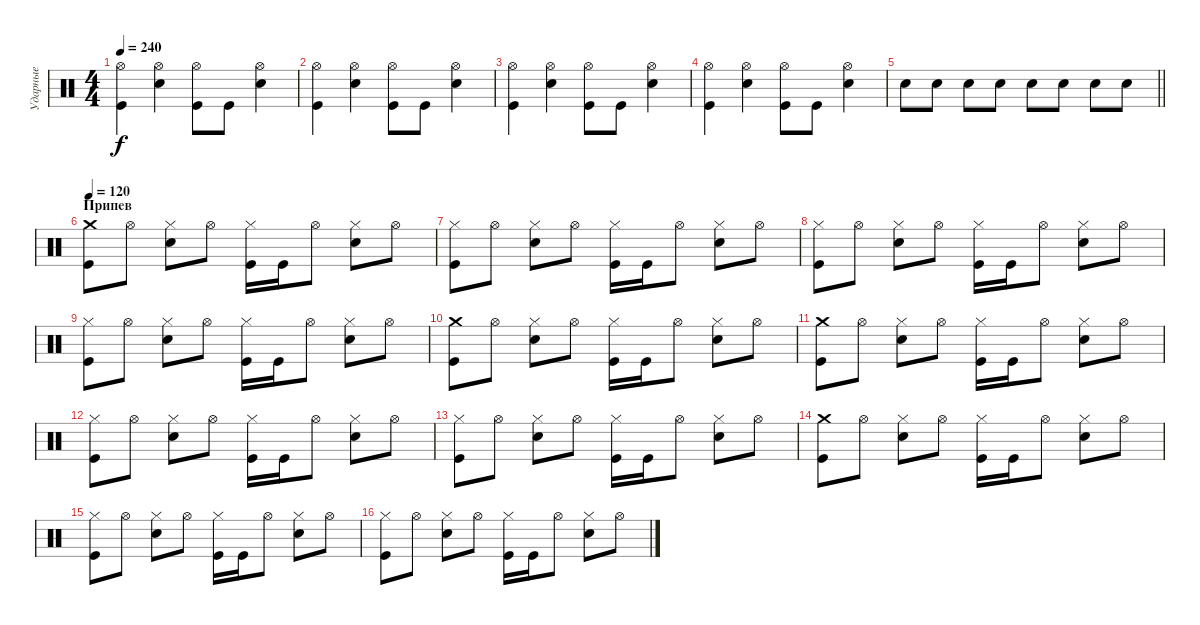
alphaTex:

\track ("Ударные" "Ударные") {instrument percussion}
\staff {score}
\articulation defaults
\ts (4 4)
\tempo 240
\clef neutral
\ks c
("Hi-Hat (open)" "Kick (hit)").4{dy f} ("Hi-Hat (open)" "Electric Snare (hit)").4 ("Hi-Hat (open)" "Kick (hit)").8 "Kick (hit)".8 ("Hi-Hat (open)" "Electric Snare (hit)").4 |
("Hi-Hat (open)" "Kick (hit)").4 ("Hi-Hat (open)" "Electric Snare (hit)").4 ("Hi-Hat (open)" "Kick (hit)").8 "Kick (hit)".8 ("Hi-Hat (open)" "Electric Snare (hit)").4 |
("Hi-Hat (open)" "Kick (hit)").4 ("Hi-Hat (open)" "Electric Snare (hit)").4 ("Hi-Hat (open)" "Kick (hit)").8 "Kick (hit)".8 ("Hi-Hat (open)" "Electric Snare (hit)").4 |
("Hi-Hat (open)" "Kick (hit)").4 ("Hi-Hat (open)" "Electric Snare (hit)").4 ("Hi-Hat (open)" "Kick (hit)").8 "Kick (hit)".8 ("Hi-Hat (open)" "Electric Snare (hit)").4 |
\barLineRight lightlight "Electric Snare (hit)".8 "Electric Snare (hit)".8 "Electric Snare (hit)".8 "Electric Snare (hit)".8 "Electric Snare (hit)".8 "Electric Snare (hit)".8 "Electric Snare (hit)".8 "Electric Snare (hit)".8
|
\section ("" "Припев")
\tempo 120
("Crash medium (hit)" "Kick (hit)").8 "Hi-Hat (open)".8 ("Hi-Hat (closed)" "Electric Snare (hit)").8 "Hi-Hat (open)".8 ("Hi-Hat (closed)" "Kick (hit)").16 "Kick (hit)".16 "Hi-Hat (open)".8 ("Hi-Hat (closed)" "Electric Snare (hit)").8 "Hi-Hat (open)".8 |
("Hi-Hat (closed)" "Kick (hit)").8 "Hi-Hat (open)".8 ("Hi-Hat (closed)" "Electric Snare (hit)").8 "Hi-Hat (open)".8 ("Hi-Hat (closed)" "Kick (hit)").16 "Kick (hit)".16 "Hi-Hat (open)".8 ("Hi-Hat (closed)" "Electric Snare (hit)").8 "Hi-Hat (open)".8 |
("Hi-Hat (closed)" "Kick (hit)").8 "Hi-Hat (open)".8 ("Hi-Hat (closed)" "Electric Snare (hit)").8 "Hi-Hat (open)".8 ("Hi-Hat (closed)" "Kick (hit)").16 "Kick (hit)".16 "Hi-Hat (open)".8 ("Hi-Hat (closed)" "Electric Snare (hit)").8 "Hi-Hat (open)".8 |
("Hi-Hat (closed)" "Kick (hit)").8 "Hi-Hat (open)".8 ("Hi-Hat (closed)" "Electric Snare (hit)").8 "Hi-Hat (open)".8 ("Hi-Hat (closed)" "Kick (hit)").16 "Kick (hit)".16 "Hi-Hat (open)".8 ("Hi-Hat (closed)" "Electric Snare (hit)").8 "Hi-Hat (open)".8 |
("Crash medium (hit)" "Kick (hit)").8 "Hi-Hat (open)".8 ("Hi-Hat (closed)" "Electric Snare (hit)").8 "Hi-Hat (open)".8 ("Hi-Hat (closed)" "Kick (hit)").16 "Kick (hit)".16 "Hi-Hat (open)".8 ("Hi-Hat (closed)" "Electric Snare (hit)").8 "Hi-Hat (open)".8 |
("Crash medium (hit)" "Kick (hit)").8 "Hi-Hat (open)".8 ("Hi-Hat (closed)" "Electric Snare (hit)").8 "Hi-Hat (open)".8 ("Hi-Hat (closed)" "Kick (hit)").16 "Kick (hit)".16 "Hi-Hat (open)".8 ("Hi-Hat (closed)" "Electric Snare (hit)").8 "Hi-Hat (open)".8 |
("Hi-Hat (closed)" "Kick (hit)").8 "Hi-Hat (open)".8 ("Hi-Hat (closed)" "Electric Snare (hit)").8 "Hi-Hat (open)".8 ("Hi-Hat (closed)" "Kick (hit)").16 "Kick (hit)".16 "Hi-Hat (open)".8 ("Hi-Hat (closed)" "Electric Snare (hit)").8 "Hi-Hat (open)".8 |
("Hi-Hat (closed)" "Kick (hit)").8 "Hi-Hat (open)".8 ("Hi-Hat (closed)" "Electric Snare (hit)").8 "Hi-Hat (open)".8 ("Hi-Hat (closed)" "Kick (hit)").16 "Kick (hit)".16 "Hi-Hat (open)".8 ("Hi-Hat (closed)" "Electric Snare (hit)").8 "Hi-Hat (open)".8 |
("Crash medium (hit)" "Kick (hit)").8 "Hi-Hat (open)".8 ("Hi-Hat (closed)" "Electric Snare (hit)").8 "Hi-Hat (open)".8 ("Hi-Hat (closed)" "Kick (hit)").16 "Kick (hit)".16 "Hi-Hat (open)".8 ("Hi-Hat (closed)" "Electric Snare (hit)").8 "Hi-Hat (open)".8 |
("Hi-Hat (closed)" "Kick (hit)").8 "Hi-Hat (open)".8 ("Hi-Hat (closed)" "Electric Snare (hit)").8 "Hi-Hat (open)".8 ("Hi-Hat (closed)" "Kick (hit)").16 "Kick (hit)".16 "Hi-Hat (open)".8 ("Hi-Hat (closed)" "Electric Snare (hit)").8 "Hi-Hat (open)".8 |
("Hi-Hat (closed)" "Kick (hit)").8 "Hi-Hat (open)".8 ("Hi-Hat (closed)" "Electric Snare (hit)").8 "Hi-Hat (open)".8 ("Hi-Hat (closed)" "Kick (hit)").16 "Kick (hit)".16 "Hi-Hat (open)".8 ("Hi-Hat (closed)" "Electric Snare (hit)").8 "Hi-Hat (open)".8
